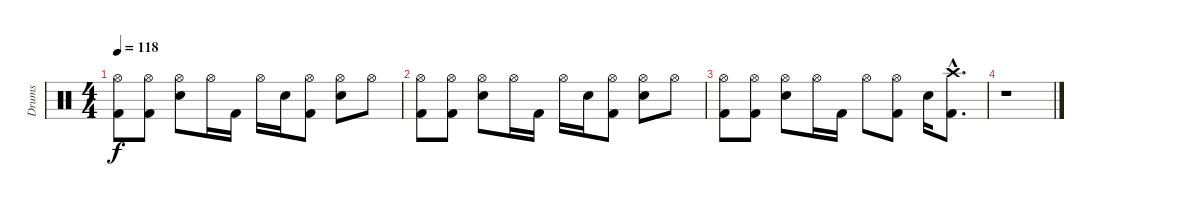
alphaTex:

\track ("Drums" "Drums") {instrument percussion}
\staff {score}
\articulation defaults
\ts (4 4)
\tempo 118
\clef neutral
\ks c
("Hi-Hat (open)" "Kick (hit) 2").8{dy f} ("Hi-Hat (open)" "Kick (hit) 2").8 ("Hi-Hat (open)" "Electric Snare (hit)").8 "Hi-Hat (open)".16 "Kick (hit) 2".16 "Hi-Hat (open)".16 "Electric Snare (hit)".16 ("Hi-Hat (open)" "Kick (hit) 2").8 ("Hi-Hat (open)" "Electric Snare (hit)").8 "Hi-Hat (open)".8 |
("Hi-Hat (open)" "Kick (hit) 2").8 ("Hi-Hat (open)" "Kick (hit) 2").8 ("Hi-Hat (open)" "Electric Snare (hit)").8 "Hi-Hat (open)".16 "Kick (hit) 2".16 "Hi-Hat (open)".16 "Electric Snare (hit)".16 ("Hi-Hat (open)" "Kick (hit) 2").8 ("Hi-Hat (open)" "Electric Snare (hit)").8 "Hi-Hat (open)".8 |
("Hi-Hat (open)" "Kick (hit) 2").8 ("Hi-Hat (open)" "Kick (hit) 2").8 ("Hi-Hat (open)" "Electric Snare (hit)").8 "Hi-Hat (open)".16 "Kick (hit) 2".16 "Hi-Hat (open)".8 ("Hi-Hat (open)" "Kick (hit) 2").8 "Electric Snare (hit)".16 ("Crash high (hit)"{hac} "Kick (hit) 2"{hac}).8{d} |
r.1
